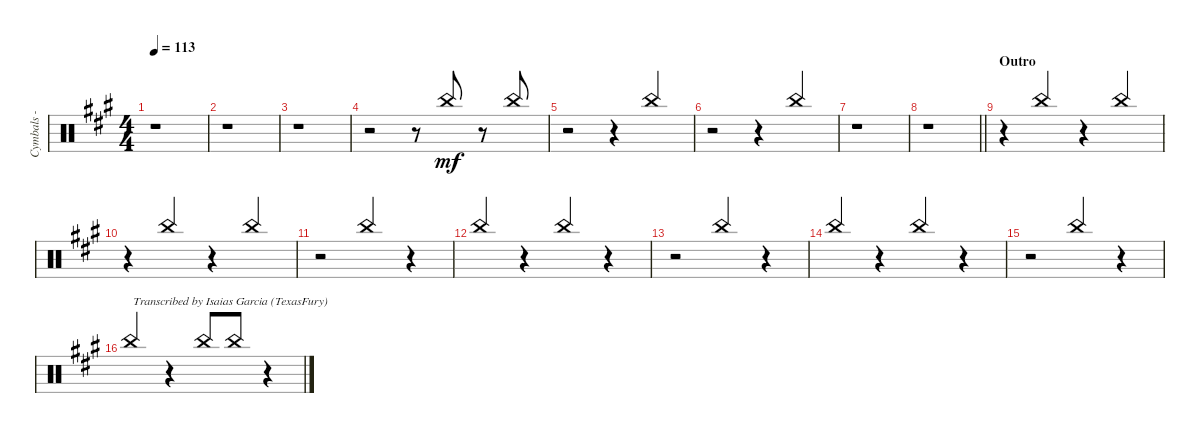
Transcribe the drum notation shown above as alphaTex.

\track ("Cymbals - china" "Cymbals - ") {instrument percussion}
\staff {score}
\articulation defaults
\ts (4 4)
\tempo 113
\clef neutral
\ks f#minor
r.1{dy mf} |
r.1 |
r.1 |
r.2 r.8 "China (hit)".8{beam Up} r.8 "China (hit)".8{beam Up} |
r.2 r.4 "China (hit)".4{beam Up} |
r.2 r.4 "China (hit)".4{beam Up} |
r.1 |
\barLineRight lightlight
r.1 |
\section ("" "Outro")
r.4 "China (hit)".4{beam Up} r.4 "China (hit)".4{beam Up} |
r.4 "China (hit)".4{beam Up} r.4 "China (hit)".4{beam Up} |
r.2 "China (hit)".4{beam Up} r.4 |
"China (hit)".4{beam Up} r.4 "China (hit)".4{beam Up} r.4 |
r.2 "China (hit)".4{beam Up} r.4 |
"China (hit)".4{beam Up} r.4 "China (hit)".4{beam Up} r.4 |
r.2 "China (hit)".4{beam Up} r.4 |
"China (hit)".4{txt "Transcribed by Isaias Garcia (TexasFury)" beam Up} r.4 "China (hit)".8{beam Up} "China (hit)".8{beam Up} r.4{volume 0}
